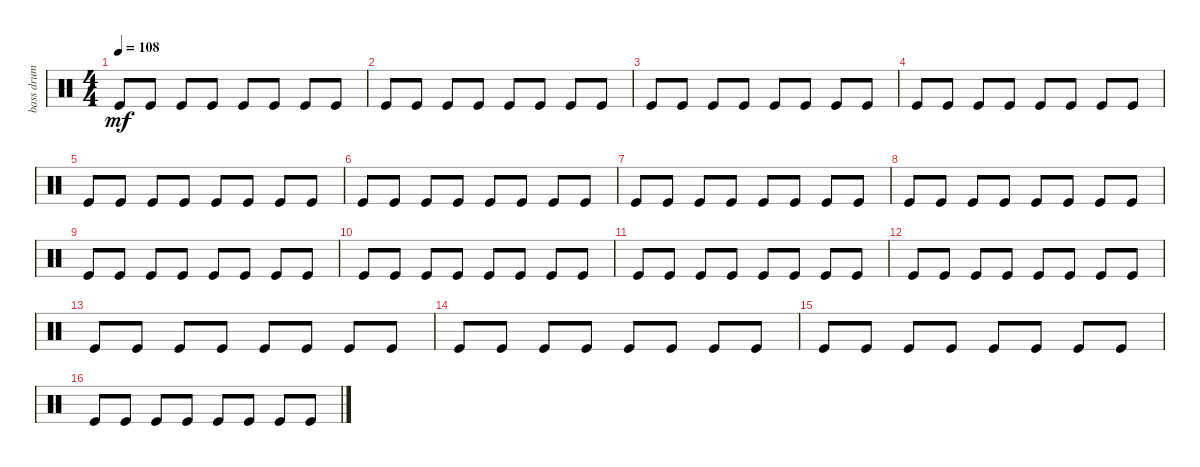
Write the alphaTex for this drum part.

\track ("bass drum           " "bass drum ") {instrument percussion}
\staff {score}
\articulation defaults
\ts (4 4)
\tempo 108
\clef neutral
\ks c "Kick (hit)".8{dy mf} "Kick (hit)".8 "Kick (hit)".8 "Kick (hit)".8 "Kick (hit)".8 "Kick (hit)".8 "Kick (hit)".8 "Kick (hit)".8
|
"Kick (hit)".8 "Kick (hit)".8 "Kick (hit)".8 "Kick (hit)".8 "Kick (hit)".8 "Kick (hit)".8 "Kick (hit)".8 "Kick (hit)".8 |
"Kick (hit)".8 "Kick (hit)".8 "Kick (hit)".8 "Kick (hit)".8 "Kick (hit)".8 "Kick (hit)".8 "Kick (hit)".8 "Kick (hit)".8 |
"Kick (hit)".8 "Kick (hit)".8 "Kick (hit)".8 "Kick (hit)".8 "Kick (hit)".8 "Kick (hit)".8 "Kick (hit)".8 "Kick (hit)".8 |
"Kick (hit)".8 "Kick (hit)".8 "Kick (hit)".8 "Kick (hit)".8 "Kick (hit)".8 "Kick (hit)".8 "Kick (hit)".8 "Kick (hit)".8 |
"Kick (hit)".8 "Kick (hit)".8 "Kick (hit)".8 "Kick (hit)".8 "Kick (hit)".8 "Kick (hit)".8 "Kick (hit)".8 "Kick (hit)".8 |
"Kick (hit)".8 "Kick (hit)".8 "Kick (hit)".8 "Kick (hit)".8 "Kick (hit)".8 "Kick (hit)".8 "Kick (hit)".8 "Kick (hit)".8 |
"Kick (hit)".8 "Kick (hit)".8 "Kick (hit)".8 "Kick (hit)".8 "Kick (hit)".8 "Kick (hit)".8 "Kick (hit)".8 "Kick (hit)".8 |
"Kick (hit)".8 "Kick (hit)".8 "Kick (hit)".8 "Kick (hit)".8 "Kick (hit)".8 "Kick (hit)".8 "Kick (hit)".8 "Kick (hit)".8 |
"Kick (hit)".8 "Kick (hit)".8 "Kick (hit)".8 "Kick (hit)".8 "Kick (hit)".8 "Kick (hit)".8 "Kick (hit)".8 "Kick (hit)".8 |
"Kick (hit)".8 "Kick (hit)".8 "Kick (hit)".8 "Kick (hit)".8 "Kick (hit)".8 "Kick (hit)".8 "Kick (hit)".8 "Kick (hit)".8 |
"Kick (hit)".8 "Kick (hit)".8 "Kick (hit)".8 "Kick (hit)".8 "Kick (hit)".8 "Kick (hit)".8 "Kick (hit)".8 "Kick (hit)".8 |
"Kick (hit)".8 "Kick (hit)".8 "Kick (hit)".8 "Kick (hit)".8 "Kick (hit)".8 "Kick (hit)".8 "Kick (hit)".8 "Kick (hit)".8 |
"Kick (hit)".8 "Kick (hit)".8 "Kick (hit)".8 "Kick (hit)".8 "Kick (hit)".8 "Kick (hit)".8 "Kick (hit)".8 "Kick (hit)".8 |
"Kick (hit)".8 "Kick (hit)".8 "Kick (hit)".8 "Kick (hit)".8 "Kick (hit)".8 "Kick (hit)".8 "Kick (hit)".8 "Kick (hit)".8 |
"Kick (hit)".8 "Kick (hit)".8 "Kick (hit)".8 "Kick (hit)".8 "Kick (hit)".8 "Kick (hit)".8 "Kick (hit)".8 "Kick (hit)".8
